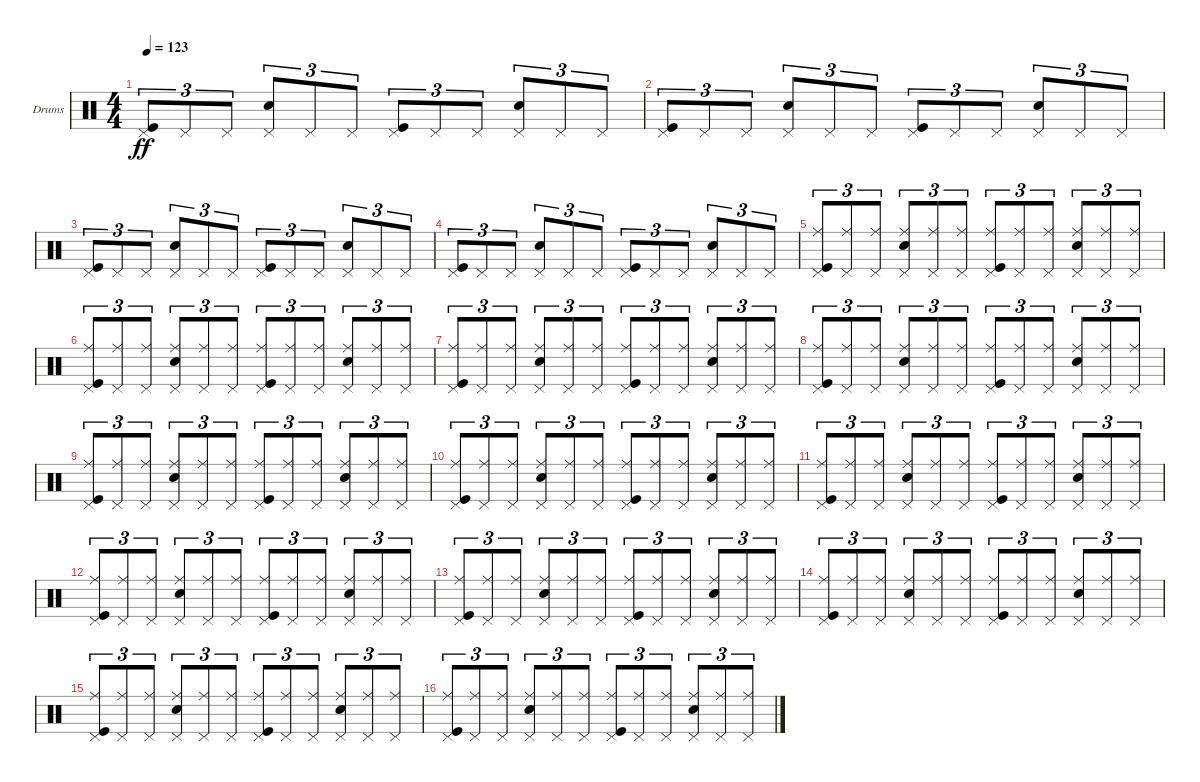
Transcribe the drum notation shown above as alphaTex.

\defaultSystemsLayout 4
\bracketExtendMode groupsimilarinstruments
\firstSystemTrackNameOrientation horizontal
\otherSystemsTrackNameOrientation horizontal
\track ("Drumkit" "Drums") {instrument percussion}
\staff {score}
\articulation defaults
\ts (4 4)
\tempo 123
\clef neutral
\ks c
("Kick (hit)" "Pedal Hi-Hat (hit)").8{tu (3 2) dy ff} "Pedal Hi-Hat (hit)".8{tu (3 2)} "Pedal Hi-Hat (hit)".8{tu (3 2)} ("Snare (hit) 2" "Pedal Hi-Hat (hit)").8{tu (3 2)} "Pedal Hi-Hat (hit)".8{tu (3 2)} "Pedal Hi-Hat (hit)".8{tu (3 2)} ("Kick (hit)" "Pedal Hi-Hat (hit)").8{tu (3 2)} "Pedal Hi-Hat (hit)".8{tu (3 2)} "Pedal Hi-Hat (hit)".8{tu (3 2)} ("Snare (hit) 2" "Pedal Hi-Hat (hit)").8{tu (3 2)} "Pedal Hi-Hat (hit)".8{tu (3 2)} "Pedal Hi-Hat (hit)".8{tu (3 2)} |
("Kick (hit)" "Pedal Hi-Hat (hit)").8{tu (3 2)} "Pedal Hi-Hat (hit)".8{tu (3 2)} "Pedal Hi-Hat (hit)".8{tu (3 2)} ("Snare (hit) 2" "Pedal Hi-Hat (hit)").8{tu (3 2)} "Pedal Hi-Hat (hit)".8{tu (3 2)} "Pedal Hi-Hat (hit)".8{tu (3 2)} ("Kick (hit)" "Pedal Hi-Hat (hit)").8{tu (3 2)} "Pedal Hi-Hat (hit)".8{tu (3 2)} "Pedal Hi-Hat (hit)".8{tu (3 2)} ("Snare (hit) 2" "Pedal Hi-Hat (hit)").8{tu (3 2)} "Pedal Hi-Hat (hit)".8{tu (3 2)} "Pedal Hi-Hat (hit)".8{tu (3 2)} |
("Kick (hit)" "Pedal Hi-Hat (hit)").8{tu (3 2)} "Pedal Hi-Hat (hit)".8{tu (3 2)} "Pedal Hi-Hat (hit)".8{tu (3 2)} ("Snare (hit) 2" "Pedal Hi-Hat (hit)").8{tu (3 2)} "Pedal Hi-Hat (hit)".8{tu (3 2)} "Pedal Hi-Hat (hit)".8{tu (3 2)} ("Kick (hit)" "Pedal Hi-Hat (hit)").8{tu (3 2)} "Pedal Hi-Hat (hit)".8{tu (3 2)} "Pedal Hi-Hat (hit)".8{tu (3 2)} ("Snare (hit) 2" "Pedal Hi-Hat (hit)").8{tu (3 2)} "Pedal Hi-Hat (hit)".8{tu (3 2)} "Pedal Hi-Hat (hit)".8{tu (3 2)} |
("Kick (hit)" "Pedal Hi-Hat (hit)").8{tu (3 2)} "Pedal Hi-Hat (hit)".8{tu (3 2)} "Pedal Hi-Hat (hit)".8{tu (3 2)} ("Snare (hit) 2" "Pedal Hi-Hat (hit)").8{tu (3 2)} "Pedal Hi-Hat (hit)".8{tu (3 2)} "Pedal Hi-Hat (hit)".8{tu (3 2)} ("Kick (hit)" "Pedal Hi-Hat (hit)").8{tu (3 2)} "Pedal Hi-Hat (hit)".8{tu (3 2)} "Pedal Hi-Hat (hit)".8{tu (3 2)} ("Snare (hit) 2" "Pedal Hi-Hat (hit)").8{tu (3 2)} "Pedal Hi-Hat (hit)".8{tu (3 2)} "Pedal Hi-Hat (hit)".8{tu (3 2)} |
("Kick (hit)" "Pedal Hi-Hat (hit)" "Ride (middle)").8{tu (3 2)} ("Pedal Hi-Hat (hit)" "Ride (middle)").8{tu (3 2)} ("Pedal Hi-Hat (hit)" "Ride (middle)").8{tu (3 2)} ("Snare (hit) 2" "Pedal Hi-Hat (hit)" "Ride (middle)").8{tu (3 2)} ("Pedal Hi-Hat (hit)" "Ride (middle)").8{tu (3 2)} ("Pedal Hi-Hat (hit)" "Ride (middle)").8{tu (3 2)} ("Kick (hit)" "Pedal Hi-Hat (hit)" "Ride (middle)").8{tu (3 2)} ("Pedal Hi-Hat (hit)" "Ride (middle)").8{tu (3 2)} ("Pedal Hi-Hat (hit)" "Ride (middle)").8{tu (3 2)} ("Snare (hit) 2" "Pedal Hi-Hat (hit)" "Ride (middle)").8{tu (3 2)} ("Pedal Hi-Hat (hit)" "Ride (middle)").8{tu (3 2)} ("Pedal Hi-Hat (hit)" "Ride (middle)").8{tu (3 2)} |
("Kick (hit)" "Pedal Hi-Hat (hit)" "Ride (middle)").8{tu (3 2)} ("Pedal Hi-Hat (hit)" "Ride (middle)").8{tu (3 2)} ("Pedal Hi-Hat (hit)" "Ride (middle)").8{tu (3 2)} ("Snare (hit) 2" "Pedal Hi-Hat (hit)" "Ride (middle)").8{tu (3 2)} ("Pedal Hi-Hat (hit)" "Ride (middle)").8{tu (3 2)} ("Pedal Hi-Hat (hit)" "Ride (middle)").8{tu (3 2)} ("Kick (hit)" "Pedal Hi-Hat (hit)" "Ride (middle)").8{tu (3 2)} ("Pedal Hi-Hat (hit)" "Ride (middle)").8{tu (3 2)} ("Pedal Hi-Hat (hit)" "Ride (middle)").8{tu (3 2)} ("Snare (hit) 2" "Pedal Hi-Hat (hit)" "Ride (middle)").8{tu (3 2)} ("Pedal Hi-Hat (hit)" "Ride (middle)").8{tu (3 2)} ("Pedal Hi-Hat (hit)" "Ride (middle)").8{tu (3 2)} |
("Kick (hit)" "Pedal Hi-Hat (hit)" "Ride (middle)").8{tu (3 2)} ("Pedal Hi-Hat (hit)" "Ride (middle)").8{tu (3 2)} ("Pedal Hi-Hat (hit)" "Ride (middle)").8{tu (3 2)} ("Snare (hit) 2" "Pedal Hi-Hat (hit)" "Ride (middle)").8{tu (3 2)} ("Pedal Hi-Hat (hit)" "Ride (middle)").8{tu (3 2)} ("Pedal Hi-Hat (hit)" "Ride (middle)").8{tu (3 2)} ("Kick (hit)" "Pedal Hi-Hat (hit)" "Ride (middle)").8{tu (3 2)} ("Pedal Hi-Hat (hit)" "Ride (middle)").8{tu (3 2)} ("Pedal Hi-Hat (hit)" "Ride (middle)").8{tu (3 2)} ("Snare (hit) 2" "Pedal Hi-Hat (hit)" "Ride (middle)").8{tu (3 2)} ("Pedal Hi-Hat (hit)" "Ride (middle)").8{tu (3 2)} ("Pedal Hi-Hat (hit)" "Ride (middle)").8{tu (3 2)} |
("Kick (hit)" "Pedal Hi-Hat (hit)" "Ride (middle)").8{tu (3 2)} ("Pedal Hi-Hat (hit)" "Ride (middle)").8{tu (3 2)} ("Pedal Hi-Hat (hit)" "Ride (middle)").8{tu (3 2)} ("Snare (hit) 2" "Pedal Hi-Hat (hit)" "Ride (middle)").8{tu (3 2)} ("Pedal Hi-Hat (hit)" "Ride (middle)").8{tu (3 2)} ("Pedal Hi-Hat (hit)" "Ride (middle)").8{tu (3 2)} ("Kick (hit)" "Pedal Hi-Hat (hit)" "Ride (middle)").8{tu (3 2)} ("Pedal Hi-Hat (hit)" "Ride (middle)").8{tu (3 2)} ("Pedal Hi-Hat (hit)" "Ride (middle)").8{tu (3 2)} ("Snare (hit) 2" "Pedal Hi-Hat (hit)" "Ride (middle)").8{tu (3 2)} ("Pedal Hi-Hat (hit)" "Ride (middle)").8{tu (3 2)} ("Pedal Hi-Hat (hit)" "Ride (middle)").8{tu (3 2)} |
("Kick (hit)" "Pedal Hi-Hat (hit)" "Ride (middle)").8{tu (3 2)} ("Pedal Hi-Hat (hit)" "Ride (middle)").8{tu (3 2)} ("Pedal Hi-Hat (hit)" "Ride (middle)").8{tu (3 2)} ("Snare (hit) 2" "Pedal Hi-Hat (hit)" "Ride (middle)").8{tu (3 2)} ("Pedal Hi-Hat (hit)" "Ride (middle)").8{tu (3 2)} ("Pedal Hi-Hat (hit)" "Ride (middle)").8{tu (3 2)} ("Kick (hit)" "Pedal Hi-Hat (hit)" "Ride (middle)").8{tu (3 2)} ("Pedal Hi-Hat (hit)" "Ride (middle)").8{tu (3 2)} ("Pedal Hi-Hat (hit)" "Ride (middle)").8{tu (3 2)} ("Snare (hit) 2" "Pedal Hi-Hat (hit)" "Ride (middle)").8{tu (3 2)} ("Pedal Hi-Hat (hit)" "Ride (middle)").8{tu (3 2)} ("Pedal Hi-Hat (hit)" "Ride (middle)").8{tu (3 2)} |
("Kick (hit)" "Pedal Hi-Hat (hit)" "Ride (middle)").8{tu (3 2)} ("Pedal Hi-Hat (hit)" "Ride (middle)").8{tu (3 2)} ("Pedal Hi-Hat (hit)" "Ride (middle)").8{tu (3 2)} ("Snare (hit) 2" "Pedal Hi-Hat (hit)" "Ride (middle)").8{tu (3 2)} ("Pedal Hi-Hat (hit)" "Ride (middle)").8{tu (3 2)} ("Pedal Hi-Hat (hit)" "Ride (middle)").8{tu (3 2)} ("Kick (hit)" "Pedal Hi-Hat (hit)" "Ride (middle)").8{tu (3 2)} ("Pedal Hi-Hat (hit)" "Ride (middle)").8{tu (3 2)} ("Pedal Hi-Hat (hit)" "Ride (middle)").8{tu (3 2)} ("Snare (hit) 2" "Pedal Hi-Hat (hit)" "Ride (middle)").8{tu (3 2)} ("Pedal Hi-Hat (hit)" "Ride (middle)").8{tu (3 2)} ("Pedal Hi-Hat (hit)" "Ride (middle)").8{tu (3 2)} |
("Kick (hit)" "Pedal Hi-Hat (hit)" "Ride (middle)").8{tu (3 2)} ("Pedal Hi-Hat (hit)" "Ride (middle)").8{tu (3 2)} ("Pedal Hi-Hat (hit)" "Ride (middle)").8{tu (3 2)} ("Snare (hit) 2" "Pedal Hi-Hat (hit)" "Ride (middle)").8{tu (3 2)} ("Pedal Hi-Hat (hit)" "Ride (middle)").8{tu (3 2)} ("Pedal Hi-Hat (hit)" "Ride (middle)").8{tu (3 2)} ("Kick (hit)" "Pedal Hi-Hat (hit)" "Ride (middle)").8{tu (3 2)} ("Pedal Hi-Hat (hit)" "Ride (middle)").8{tu (3 2)} ("Pedal Hi-Hat (hit)" "Ride (middle)").8{tu (3 2)} ("Snare (hit) 2" "Pedal Hi-Hat (hit)" "Ride (middle)").8{tu (3 2)} ("Pedal Hi-Hat (hit)" "Ride (middle)").8{tu (3 2)} ("Pedal Hi-Hat (hit)" "Ride (middle)").8{tu (3 2)} |
("Kick (hit)" "Pedal Hi-Hat (hit)" "Ride (middle)").8{tu (3 2)} ("Pedal Hi-Hat (hit)" "Ride (middle)").8{tu (3 2)} ("Pedal Hi-Hat (hit)" "Ride (middle)").8{tu (3 2)} ("Snare (hit) 2" "Pedal Hi-Hat (hit)" "Ride (middle)").8{tu (3 2)} ("Pedal Hi-Hat (hit)" "Ride (middle)").8{tu (3 2)} ("Pedal Hi-Hat (hit)" "Ride (middle)").8{tu (3 2)} ("Kick (hit)" "Pedal Hi-Hat (hit)" "Ride (middle)").8{tu (3 2)} ("Pedal Hi-Hat (hit)" "Ride (middle)").8{tu (3 2)} ("Pedal Hi-Hat (hit)" "Ride (middle)").8{tu (3 2)} ("Snare (hit) 2" "Pedal Hi-Hat (hit)" "Ride (middle)").8{tu (3 2)} ("Pedal Hi-Hat (hit)" "Ride (middle)").8{tu (3 2)} ("Pedal Hi-Hat (hit)" "Ride (middle)").8{tu (3 2)} |
("Kick (hit)" "Pedal Hi-Hat (hit)" "Ride (middle)").8{tu (3 2)} ("Pedal Hi-Hat (hit)" "Ride (middle)").8{tu (3 2)} ("Pedal Hi-Hat (hit)" "Ride (middle)").8{tu (3 2)} ("Snare (hit) 2" "Pedal Hi-Hat (hit)" "Ride (middle)").8{tu (3 2)} ("Pedal Hi-Hat (hit)" "Ride (middle)").8{tu (3 2)} ("Pedal Hi-Hat (hit)" "Ride (middle)").8{tu (3 2)} ("Kick (hit)" "Pedal Hi-Hat (hit)" "Ride (middle)").8{tu (3 2)} ("Pedal Hi-Hat (hit)" "Ride (middle)").8{tu (3 2)} ("Pedal Hi-Hat (hit)" "Ride (middle)").8{tu (3 2)} ("Snare (hit) 2" "Pedal Hi-Hat (hit)" "Ride (middle)").8{tu (3 2)} ("Pedal Hi-Hat (hit)" "Ride (middle)").8{tu (3 2)} ("Pedal Hi-Hat (hit)" "Ride (middle)").8{tu (3 2)} |
("Kick (hit)" "Pedal Hi-Hat (hit)" "Ride (middle)").8{tu (3 2)} ("Pedal Hi-Hat (hit)" "Ride (middle)").8{tu (3 2)} ("Pedal Hi-Hat (hit)" "Ride (middle)").8{tu (3 2)} ("Snare (hit) 2" "Pedal Hi-Hat (hit)" "Ride (middle)").8{tu (3 2)} ("Pedal Hi-Hat (hit)" "Ride (middle)").8{tu (3 2)} ("Pedal Hi-Hat (hit)" "Ride (middle)").8{tu (3 2)} ("Kick (hit)" "Pedal Hi-Hat (hit)" "Ride (middle)").8{tu (3 2)} ("Pedal Hi-Hat (hit)" "Ride (middle)").8{tu (3 2)} ("Pedal Hi-Hat (hit)" "Ride (middle)").8{tu (3 2)} ("Snare (hit) 2" "Pedal Hi-Hat (hit)" "Ride (middle)").8{tu (3 2)} ("Pedal Hi-Hat (hit)" "Ride (middle)").8{tu (3 2)} ("Pedal Hi-Hat (hit)" "Ride (middle)").8{tu (3 2)} |
("Kick (hit)" "Pedal Hi-Hat (hit)" "Ride (middle)").8{tu (3 2)} ("Pedal Hi-Hat (hit)" "Ride (middle)").8{tu (3 2)} ("Pedal Hi-Hat (hit)" "Ride (middle)").8{tu (3 2)} ("Snare (hit) 2" "Pedal Hi-Hat (hit)" "Ride (middle)").8{tu (3 2)} ("Pedal Hi-Hat (hit)" "Ride (middle)").8{tu (3 2)} ("Pedal Hi-Hat (hit)" "Ride (middle)").8{tu (3 2)} ("Kick (hit)" "Pedal Hi-Hat (hit)" "Ride (middle)").8{tu (3 2)} ("Pedal Hi-Hat (hit)" "Ride (middle)").8{tu (3 2)} ("Pedal Hi-Hat (hit)" "Ride (middle)").8{tu (3 2)} ("Snare (hit) 2" "Pedal Hi-Hat (hit)" "Ride (middle)").8{tu (3 2)} ("Pedal Hi-Hat (hit)" "Ride (middle)").8{tu (3 2)} ("Pedal Hi-Hat (hit)" "Ride (middle)").8{tu (3 2)} |
("Kick (hit)" "Pedal Hi-Hat (hit)" "Ride (middle)").8{tu (3 2)} ("Pedal Hi-Hat (hit)" "Ride (middle)").8{tu (3 2)} ("Pedal Hi-Hat (hit)" "Ride (middle)").8{tu (3 2)} ("Snare (hit) 2" "Pedal Hi-Hat (hit)" "Ride (middle)").8{tu (3 2)} ("Pedal Hi-Hat (hit)" "Ride (middle)").8{tu (3 2)} ("Pedal Hi-Hat (hit)" "Ride (middle)").8{tu (3 2)} ("Kick (hit)" "Pedal Hi-Hat (hit)" "Ride (middle)").8{tu (3 2)} ("Pedal Hi-Hat (hit)" "Ride (middle)").8{tu (3 2)} ("Pedal Hi-Hat (hit)" "Ride (middle)").8{tu (3 2)} ("Snare (hit) 2" "Pedal Hi-Hat (hit)" "Ride (middle)").8{tu (3 2)} ("Pedal Hi-Hat (hit)" "Ride (middle)").8{tu (3 2)} ("Pedal Hi-Hat (hit)" "Ride (middle)").8{tu (3 2)}
